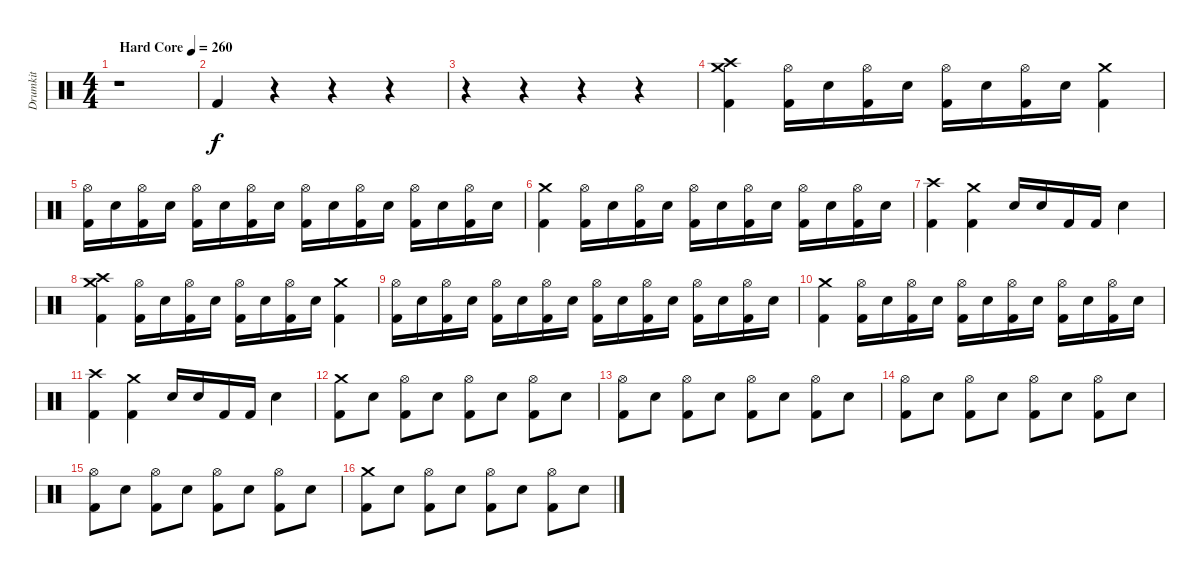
\track ("Drumkit" "Drumkit") {instrument percussion}
\staff {score}
\articulation defaults
\ts (4 4)
\tempo (260 "Hard Core")
\clef neutral
\ks c
r.1{dy f} |
"Kick (hit) 2".4 r.4 r.4 r.4 |
r.4 r.4 r.4 r.4 |
("Crash medium (hit)" "Crash high (hit)" "Kick (hit) 2").4 ("Hi-Hat (open)" "Kick (hit) 2").16 "Electric Snare (hit)".16 ("Hi-Hat (open)" "Kick (hit) 2").16 "Electric Snare (hit)".16 ("Hi-Hat (open)" "Kick (hit) 2").16 "Electric Snare (hit)".16 ("Hi-Hat (open)" "Kick (hit) 2").16 "Electric Snare (hit)".16 ("Crash medium (hit)" "Kick (hit) 2").4 |
("Hi-Hat (open)" "Kick (hit) 2").16 "Electric Snare (hit)".16 ("Hi-Hat (open)" "Kick (hit) 2").16 "Electric Snare (hit)".16 ("Hi-Hat (open)" "Kick (hit) 2").16 "Electric Snare (hit)".16 ("Hi-Hat (open)" "Kick (hit) 2").16 "Electric Snare (hit)".16 ("Hi-Hat (open)" "Kick (hit) 2").16 "Electric Snare (hit)".16 ("Hi-Hat (open)" "Kick (hit) 2").16 "Electric Snare (hit)".16 ("Hi-Hat (open)" "Kick (hit) 2").16 "Electric Snare (hit)".16 ("Hi-Hat (open)" "Kick (hit) 2").16 "Electric Snare (hit)".16 |
("Crash medium (hit)" "Kick (hit) 2").4 ("Hi-Hat (open)" "Kick (hit) 2").16 "Electric Snare (hit)".16 ("Hi-Hat (open)" "Kick (hit) 2").16 "Electric Snare (hit)".16 ("Hi-Hat (open)" "Kick (hit) 2").16 "Electric Snare (hit)".16 ("Hi-Hat (open)" "Kick (hit) 2").16 "Electric Snare (hit)".16 ("Hi-Hat (open)" "Kick (hit) 2").16 "Electric Snare (hit)".16 ("Hi-Hat (open)" "Kick (hit) 2").16 "Electric Snare (hit)".16 |
("Crash high (hit)" "Kick (hit) 2").4 ("Crash medium (hit)" "Kick (hit) 2").4 "Electric Snare (hit)".16 "Electric Snare (hit)".16 "Kick (hit) 2".16 "Kick (hit) 2".16 "Electric Snare (hit)".4 |
("Crash medium (hit)" "Crash high (hit)" "Kick (hit) 2").4 ("Hi-Hat (open)" "Kick (hit) 2").16 "Electric Snare (hit)".16 ("Hi-Hat (open)" "Kick (hit) 2").16 "Electric Snare (hit)".16 ("Hi-Hat (open)" "Kick (hit) 2").16 "Electric Snare (hit)".16 ("Hi-Hat (open)" "Kick (hit) 2").16 "Electric Snare (hit)".16 ("Crash medium (hit)" "Kick (hit) 2").4 |
("Hi-Hat (open)" "Kick (hit) 2").16 "Electric Snare (hit)".16 ("Hi-Hat (open)" "Kick (hit) 2").16 "Electric Snare (hit)".16 ("Hi-Hat (open)" "Kick (hit) 2").16 "Electric Snare (hit)".16 ("Hi-Hat (open)" "Kick (hit) 2").16 "Electric Snare (hit)".16 ("Hi-Hat (open)" "Kick (hit) 2").16 "Electric Snare (hit)".16 ("Hi-Hat (open)" "Kick (hit) 2").16 "Electric Snare (hit)".16 ("Hi-Hat (open)" "Kick (hit) 2").16 "Electric Snare (hit)".16 ("Hi-Hat (open)" "Kick (hit) 2").16 "Electric Snare (hit)".16 |
("Crash medium (hit)" "Kick (hit) 2").4 ("Hi-Hat (open)" "Kick (hit) 2").16 "Electric Snare (hit)".16 ("Hi-Hat (open)" "Kick (hit) 2").16 "Electric Snare (hit)".16 ("Hi-Hat (open)" "Kick (hit) 2").16 "Electric Snare (hit)".16 ("Hi-Hat (open)" "Kick (hit) 2").16 "Electric Snare (hit)".16 ("Hi-Hat (open)" "Kick (hit) 2").16 "Electric Snare (hit)".16 ("Hi-Hat (open)" "Kick (hit) 2").16 "Electric Snare (hit)".16 |
("Crash high (hit)" "Kick (hit) 2").4 ("Crash medium (hit)" "Kick (hit) 2").4 "Electric Snare (hit)".16 "Electric Snare (hit)".16 "Kick (hit) 2".16 "Kick (hit) 2".16 "Electric Snare (hit)".4 |
("Crash medium (hit)" "Kick (hit) 2").8 "Electric Snare (hit)".8 ("Hi-Hat (open)" "Kick (hit) 2").8 "Electric Snare (hit)".8 ("Hi-Hat (open)" "Kick (hit) 2").8 "Electric Snare (hit)".8 ("Hi-Hat (open)" "Kick (hit) 2").8 "Electric Snare (hit)".8 |
("Hi-Hat (open)" "Kick (hit) 2").8 "Electric Snare (hit)".8 ("Hi-Hat (open)" "Kick (hit) 2").8 "Electric Snare (hit)".8 ("Hi-Hat (open)" "Kick (hit) 2").8 "Electric Snare (hit)".8 ("Hi-Hat (open)" "Kick (hit) 2").8 "Electric Snare (hit)".8 |
("Hi-Hat (open)" "Kick (hit) 2").8 "Electric Snare (hit)".8 ("Hi-Hat (open)" "Kick (hit) 2").8 "Electric Snare (hit)".8 ("Hi-Hat (open)" "Kick (hit) 2").8 "Electric Snare (hit)".8 ("Hi-Hat (open)" "Kick (hit) 2").8 "Electric Snare (hit)".8 |
("Hi-Hat (open)" "Kick (hit) 2").8 "Electric Snare (hit)".8 ("Hi-Hat (open)" "Kick (hit) 2").8 "Electric Snare (hit)".8 ("Hi-Hat (open)" "Kick (hit) 2").8 "Electric Snare (hit)".8 ("Hi-Hat (open)" "Kick (hit) 2").8 "Electric Snare (hit)".8 |
("Crash medium (hit)" "Kick (hit) 2").8 "Electric Snare (hit)".8 ("Hi-Hat (open)" "Kick (hit) 2").8 "Electric Snare (hit)".8 ("Hi-Hat (open)" "Kick (hit) 2").8 "Electric Snare (hit)".8 ("Hi-Hat (open)" "Kick (hit) 2").8 "Electric Snare (hit)".8
